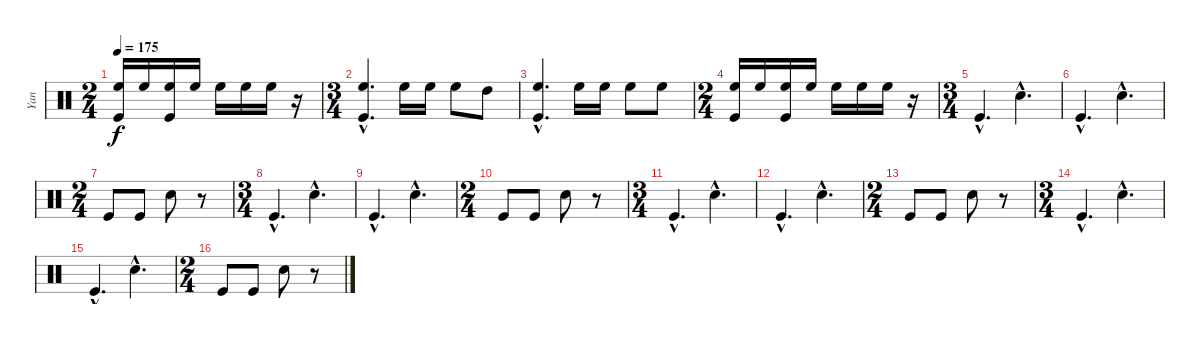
\track ("Yan" "Yan") {instrument percussion}
\staff {score}
\articulation defaults
\ts (2 4)
\tempo 175
\clef neutral
\ks c
("High Floor Tom (hit)" "Kick (hit)").16{dy f} "High Floor Tom (hit)".16 ("High Floor Tom (hit)" "Kick (hit)").16 "High Floor Tom (hit)".16 "High Floor Tom (hit)".16 "High Floor Tom (hit)".16 "High Floor Tom (hit)".16 r.16 |
\ts (3 4)
("High Floor Tom (hit)"{hac} "Kick (hit)"{hac}).4{d} "High Floor Tom (hit)".16 "High Floor Tom (hit)".16 "High Floor Tom (hit)".8 "High Tom (hit)".8 |
("High Floor Tom (hit)"{hac} "Kick (hit)"{hac}).4{d} "High Floor Tom (hit)".16 "High Floor Tom (hit)".16 "High Floor Tom (hit)".8 "High Floor Tom (hit)".8 |
\ts (2 4)
("High Floor Tom (hit)" "Kick (hit)").16 "High Floor Tom (hit)".16 ("High Floor Tom (hit)" "Kick (hit)").16 "High Floor Tom (hit)".16 "High Floor Tom (hit)".16 "High Floor Tom (hit)".16 "High Floor Tom (hit)".16 r.16 |
\ts (3 4)
"Kick (hit)"{hac}.4{d} "Snare (hit) 2"{hac}.4{d} |
"Kick (hit)"{hac}.4{d} "Snare (hit) 2"{hac}.4{d} |
\ts (2 4)
"Kick (hit)".8 "Kick (hit)".8 "Snare (hit) 2".8 r.8 |
\ts (3 4)
"Kick (hit)"{hac}.4{d} "Snare (hit) 2"{hac}.4{d} |
"Kick (hit)"{hac}.4{d} "Snare (hit) 2"{hac}.4{d} |
\ts (2 4)
"Kick (hit)".8 "Kick (hit)".8 "Snare (hit) 2".8 r.8 |
\ts (3 4)
"Kick (hit)"{hac}.4{d} "Snare (hit) 2"{hac}.4{d} |
"Kick (hit)"{hac}.4{d} "Snare (hit) 2"{hac}.4{d} |
\ts (2 4)
"Kick (hit)".8 "Kick (hit)".8 "Snare (hit) 2".8 r.8 |
\ts (3 4)
"Kick (hit)"{hac}.4{d} "Snare (hit) 2"{hac}.4{d} |
"Kick (hit)"{hac}.4{d} "Snare (hit) 2"{hac}.4{d} |
\ts (2 4)
"Kick (hit)".8 "Kick (hit)".8 "Snare (hit) 2".8 r.8
